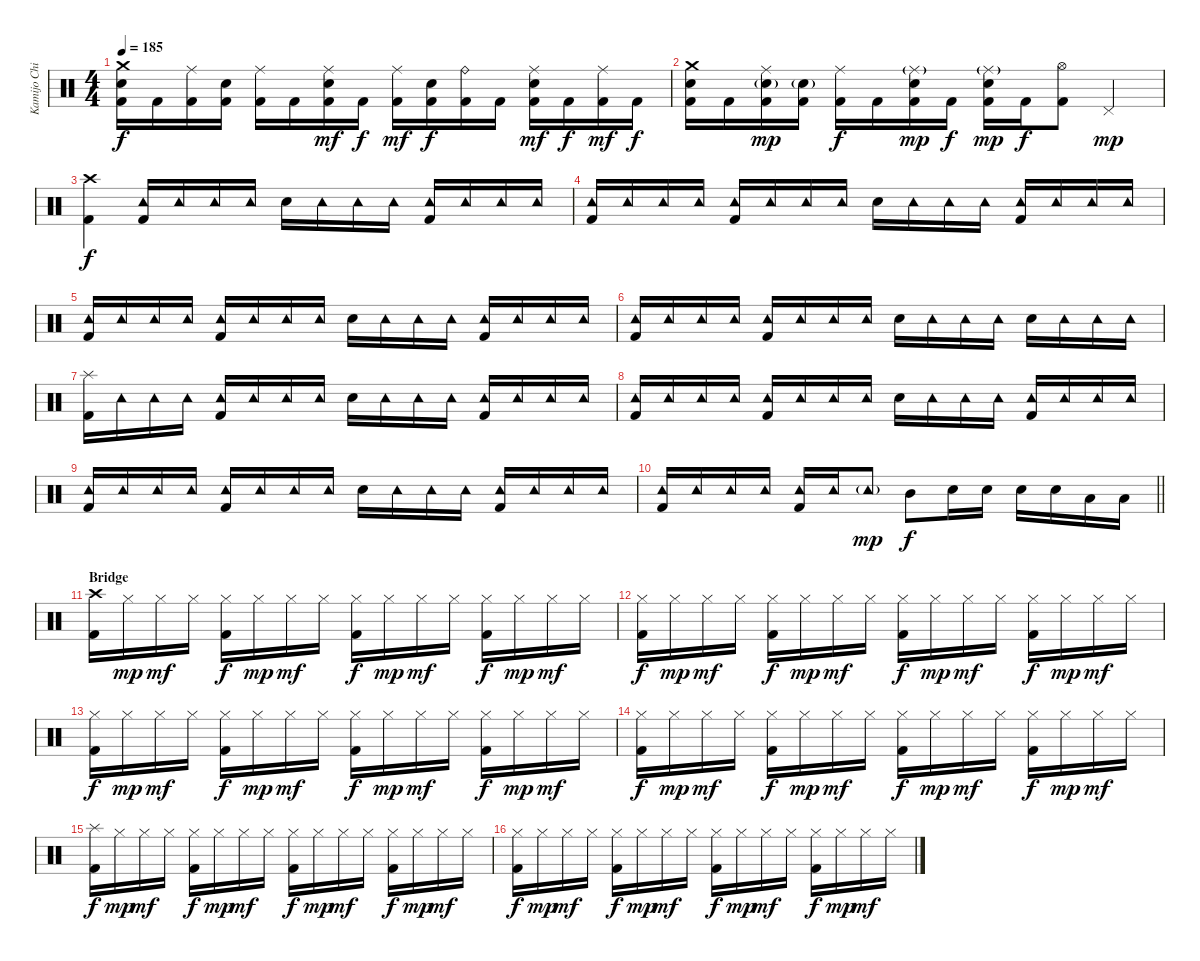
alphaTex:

\track ("Kamijo Chihiro" "Kamijo Chi") {instrument percussion}
\staff {score}
\articulation defaults
\ts (4 4)
\tempo 185
\clef neutral
\ks c
("Crash medium (hit)" "Snare (hit) 2" "Kick (hit) 2").16{dy f} "Kick (hit) 2".16 ("Ride (middle)" "Kick (hit) 2").16 ("Snare (hit) 2" "Kick (hit) 2").16 ("Ride (middle)" "Kick (hit) 2").16 "Kick (hit) 2".16 ("Ride (middle)" "Snare (hit) 2" "Kick (hit) 2").16{dy mf} "Kick (hit) 2".16{dy f} ("Ride (middle)" "Kick (hit) 2").16{dy mf} ("Snare (hit) 2" "Kick (hit) 2").16{dy f} ("Ride (bell)" "Kick (hit) 2").16 "Kick (hit) 2".16 ("Ride (middle)" "Snare (hit) 2" "Kick (hit) 2").16{dy mf} "Kick (hit) 2".16{dy f} ("Ride (middle)" "Kick (hit) 2").16{dy mf} "Kick (hit) 2".16{dy f} |
("Crash medium (hit)" "Snare (hit) 2" "Kick (hit) 2").16 "Kick (hit) 2".16 ("Ride (middle)" "Snare (hit) 2"{g} "Kick (hit) 2").16{dy mp} ("Snare (hit) 2"{g} "Kick (hit) 2").16 ("Ride (middle)" "Kick (hit) 2").16{dy f} "Kick (hit) 2".16 ("Ride (middle)"{g} "Snare (hit) 2" "Kick (hit) 2").16{dy mp} "Kick (hit) 2".16{dy f} ("Ride (middle)"{g} "Snare (hit) 2" "Kick (hit) 2").16{dy mp} "Kick (hit) 2".16{dy f} ("Hi-Hat (open)" "Kick (hit) 2").8 "Pedal Hi-Hat (hit)".4{dy mp} |
("Crash high (hit)" "Kick (hit) 2").4{dy f} ("Tambourine (hit)" "Kick (hit) 2").16 "Tambourine (hit)".16 "Tambourine (hit)".16 "Tambourine (hit)".16 "Snare (hit) 2".16 "Tambourine (hit)".16 "Tambourine (hit)".16 "Tambourine (hit)".16 ("Tambourine (hit)" "Kick (hit) 2").16 "Tambourine (hit)".16 "Tambourine (hit)".16 "Tambourine (hit)".16 |
("Tambourine (hit)" "Kick (hit) 2").16 "Tambourine (hit)".16 "Tambourine (hit)".16 "Tambourine (hit)".16 ("Tambourine (hit)" "Kick (hit) 2").16 "Tambourine (hit)".16 "Tambourine (hit)".16 "Tambourine (hit)".16 "Snare (hit) 2".16 "Tambourine (hit)".16 "Tambourine (hit)".16 "Tambourine (hit)".16 ("Tambourine (hit)" "Kick (hit) 2").16 "Tambourine (hit)".16 "Tambourine (hit)".16 "Tambourine (hit)".16 |
("Tambourine (hit)" "Kick (hit) 2").16 "Tambourine (hit)".16 "Tambourine (hit)".16 "Tambourine (hit)".16 ("Tambourine (hit)" "Kick (hit) 2").16 "Tambourine (hit)".16 "Tambourine (hit)".16 "Tambourine (hit)".16 "Snare (hit) 2".16 "Tambourine (hit)".16 "Tambourine (hit)".16 "Tambourine (hit)".16 ("Tambourine (hit)" "Kick (hit) 2").16 "Tambourine (hit)".16 "Tambourine (hit)".16 "Tambourine (hit)".16 |
("Tambourine (hit)" "Kick (hit) 2").16 "Tambourine (hit)".16 "Tambourine (hit)".16 "Tambourine (hit)".16 ("Tambourine (hit)" "Kick (hit) 2").16 "Tambourine (hit)".16 "Tambourine (hit)".16 "Tambourine (hit)".16 "Snare (hit) 2".16 "Tambourine (hit)".16 "Tambourine (hit)".16 "Tambourine (hit)".16 "Snare (hit) 2".16 "Tambourine (hit)".16 "Tambourine (hit)".16 "Tambourine (hit)".16 |
("Splash (hit)" "Kick (hit) 2").16 "Tambourine (hit)".16 "Tambourine (hit)".16 "Tambourine (hit)".16 ("Tambourine (hit)" "Kick (hit) 2").16 "Tambourine (hit)".16 "Tambourine (hit)".16 "Tambourine (hit)".16 "Snare (hit) 2".16 "Tambourine (hit)".16 "Tambourine (hit)".16 "Tambourine (hit)".16 ("Tambourine (hit)" "Kick (hit) 2").16 "Tambourine (hit)".16 "Tambourine (hit)".16 "Tambourine (hit)".16 |
("Tambourine (hit)" "Kick (hit) 2").16 "Tambourine (hit)".16 "Tambourine (hit)".16 "Tambourine (hit)".16 ("Tambourine (hit)" "Kick (hit) 2").16 "Tambourine (hit)".16 "Tambourine (hit)".16 "Tambourine (hit)".16 "Snare (hit) 2".16 "Tambourine (hit)".16 "Tambourine (hit)".16 "Tambourine (hit)".16 ("Tambourine (hit)" "Kick (hit) 2").16 "Tambourine (hit)".16 "Tambourine (hit)".16 "Tambourine (hit)".16 |
("Tambourine (hit)" "Kick (hit) 2").16 "Tambourine (hit)".16 "Tambourine (hit)".16 "Tambourine (hit)".16 ("Tambourine (hit)" "Kick (hit) 2").16 "Tambourine (hit)".16 "Tambourine (hit)".16 "Tambourine (hit)".16 "Snare (hit) 2".16 "Tambourine (hit)".16 "Tambourine (hit)".16 "Tambourine (hit)".16 ("Tambourine (hit)" "Kick (hit) 2").16 "Tambourine (hit)".16 "Tambourine (hit)".16 "Tambourine (hit)".16 |
\barLineRight lightlight
("Tambourine (hit)" "Kick (hit) 2").16 "Tambourine (hit)".16 "Tambourine (hit)".16 "Tambourine (hit)".16 ("Tambourine (hit)" "Kick (hit) 2").16 "Tambourine (hit)".16 "Tambourine (hit)"{g}.8{dy mp} "Mid Tom (hit)".8{dy f} "Snare (hit) 2".16 "Snare (hit) 2".16 "Snare (hit) 2".16 "Snare (hit) 2".16 "Low Tom (hit)".16 "Low Tom (hit)".16 |
\section ("" "Bridge")
("Crash high (hit)" "Kick (hit) 2").16 "Hi-Hat (closed)".16{dy mp} "Hi-Hat (closed)".16{dy mf} "Hi-Hat (closed)".16 ("Hi-Hat (closed)" "Kick (hit) 2").16{dy f} "Hi-Hat (closed)".16{dy mp} "Hi-Hat (closed)".16{dy mf} "Hi-Hat (closed)".16 ("Hi-Hat (closed)" "Kick (hit) 2").16{dy f} "Hi-Hat (closed)".16{dy mp} "Hi-Hat (closed)".16{dy mf} "Hi-Hat (closed)".16 ("Hi-Hat (closed)" "Kick (hit) 2").16{dy f} "Hi-Hat (closed)".16{dy mp} "Hi-Hat (closed)".16{dy mf} "Hi-Hat (closed)".16 |
("Hi-Hat (closed)" "Kick (hit) 2").16{dy f} "Hi-Hat (closed)".16{dy mp} "Hi-Hat (closed)".16{dy mf} "Hi-Hat (closed)".16 ("Hi-Hat (closed)" "Kick (hit) 2").16{dy f} "Hi-Hat (closed)".16{dy mp} "Hi-Hat (closed)".16{dy mf} "Hi-Hat (closed)".16 ("Hi-Hat (closed)" "Kick (hit) 2").16{dy f} "Hi-Hat (closed)".16{dy mp} "Hi-Hat (closed)".16{dy mf} "Hi-Hat (closed)".16 ("Hi-Hat (closed)" "Kick (hit) 2").16{dy f} "Hi-Hat (closed)".16{dy mp} "Hi-Hat (closed)".16{dy mf} "Hi-Hat (closed)".16 |
("Hi-Hat (closed)" "Kick (hit) 2").16{dy f} "Hi-Hat (closed)".16{dy mp} "Hi-Hat (closed)".16{dy mf} "Hi-Hat (closed)".16 ("Hi-Hat (closed)" "Kick (hit) 2").16{dy f} "Hi-Hat (closed)".16{dy mp} "Hi-Hat (closed)".16{dy mf} "Hi-Hat (closed)".16 ("Hi-Hat (closed)" "Kick (hit) 2").16{dy f} "Hi-Hat (closed)".16{dy mp} "Hi-Hat (closed)".16{dy mf} "Hi-Hat (closed)".16 ("Hi-Hat (closed)" "Kick (hit) 2").16{dy f} "Hi-Hat (closed)".16{dy mp} "Hi-Hat (closed)".16{dy mf} "Hi-Hat (closed)".16 |
("Hi-Hat (closed)" "Kick (hit) 2").16{dy f} "Hi-Hat (closed)".16{dy mp} "Hi-Hat (closed)".16{dy mf} "Hi-Hat (closed)".16 ("Hi-Hat (closed)" "Kick (hit) 2").16{dy f} "Hi-Hat (closed)".16{dy mp} "Hi-Hat (closed)".16{dy mf} "Hi-Hat (closed)".16 ("Hi-Hat (closed)" "Kick (hit) 2").16{dy f} "Hi-Hat (closed)".16{dy mp} "Hi-Hat (closed)".16{dy mf} "Hi-Hat (closed)".16 ("Hi-Hat (closed)" "Kick (hit) 2").16{dy f} "Hi-Hat (closed)".16{dy mp} "Hi-Hat (closed)".16{dy mf} "Hi-Hat (closed)".16 |
("Splash (hit)" "Kick (hit) 2").16{dy f} "Hi-Hat (closed)".16{dy mp} "Hi-Hat (closed)".16{dy mf} "Hi-Hat (closed)".16 ("Hi-Hat (closed)" "Kick (hit) 2").16{dy f} "Hi-Hat (closed)".16{dy mp} "Hi-Hat (closed)".16{dy mf} "Hi-Hat (closed)".16 ("Hi-Hat (closed)" "Kick (hit) 2").16{dy f} "Hi-Hat (closed)".16{dy mp} "Hi-Hat (closed)".16{dy mf} "Hi-Hat (closed)".16 ("Hi-Hat (closed)" "Kick (hit) 2").16{dy f} "Hi-Hat (closed)".16{dy mp} "Hi-Hat (closed)".16{dy mf} "Hi-Hat (closed)".16 |
("Hi-Hat (closed)" "Kick (hit) 2").16{dy f} "Hi-Hat (closed)".16{dy mp} "Hi-Hat (closed)".16{dy mf} "Hi-Hat (closed)".16 ("Hi-Hat (closed)" "Kick (hit) 2").16{dy f} "Hi-Hat (closed)".16{dy mp} "Hi-Hat (closed)".16{dy mf} "Hi-Hat (closed)".16 ("Hi-Hat (closed)" "Kick (hit) 2").16{dy f} "Hi-Hat (closed)".16{dy mp} "Hi-Hat (closed)".16{dy mf} "Hi-Hat (closed)".16 ("Hi-Hat (closed)" "Kick (hit) 2").16{dy f} "Hi-Hat (closed)".16{dy mp} "Hi-Hat (closed)".16{dy mf} "Hi-Hat (closed)".16
